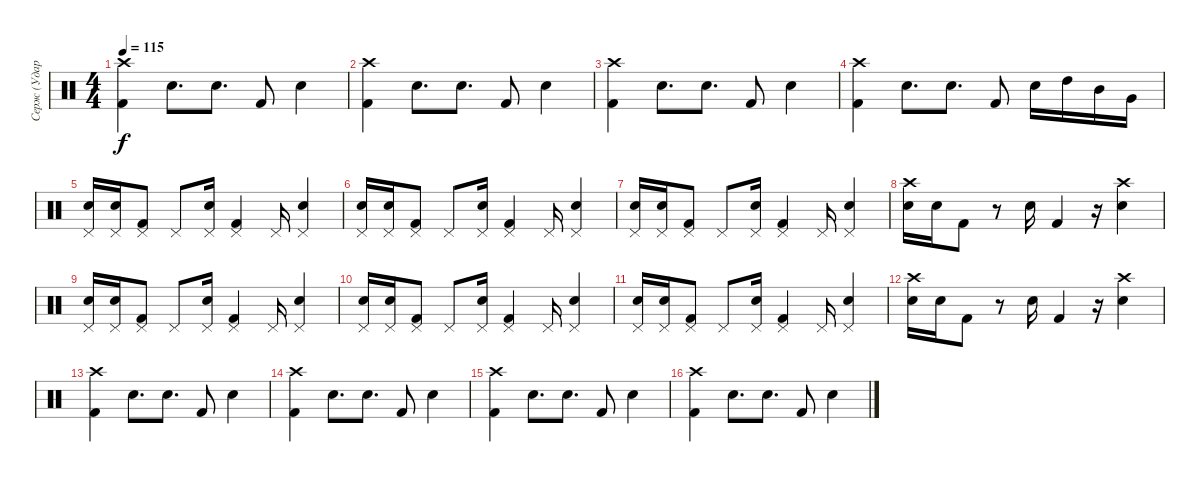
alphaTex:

\track ("Серж (Ударные)" "Серж (Удар") {instrument percussion}
\staff {score}
\articulation defaults
\ts (4 4)
\tempo 115
\clef neutral
\ks c
("Kick (hit) 2" "Crash high (hit)").4{dy f} "Snare (hit) 2".8{d} "Snare (hit) 2".8{d} "Kick (hit) 2".8 "Snare (hit) 2".4 |
("Kick (hit) 2" "Crash high (hit)").4 "Snare (hit) 2".8{d} "Snare (hit) 2".8{d} "Kick (hit) 2".8 "Snare (hit) 2".4 |
("Kick (hit) 2" "Crash high (hit)").4 "Snare (hit) 2".8{d} "Snare (hit) 2".8{d} "Kick (hit) 2".8 "Snare (hit) 2".4 |
("Kick (hit) 2" "Crash high (hit)").4 "Snare (hit) 2".8{d} "Snare (hit) 2".8{d} "Kick (hit) 2".8 "Snare (hit) 2".16 "High Tom (hit)".16 "Mid Tom (hit)".16 "Very Low Tom (hit)".16 |
("Snare (hit) 2" "Pedal Hi-Hat (hit)").16 ("Snare (hit) 2" "Pedal Hi-Hat (hit)").16 ("Kick (hit) 2" "Pedal Hi-Hat (hit)").8 "Pedal Hi-Hat (hit)".8 ("Snare (hit) 2" "Pedal Hi-Hat (hit)").16 ("Kick (hit) 2" "Pedal Hi-Hat (hit)").4 "Pedal Hi-Hat (hit)".16 ("Snare (hit) 2" "Pedal Hi-Hat (hit)").4 |
("Snare (hit) 2" "Pedal Hi-Hat (hit)").16 ("Snare (hit) 2" "Pedal Hi-Hat (hit)").16 ("Kick (hit) 2" "Pedal Hi-Hat (hit)").8 "Pedal Hi-Hat (hit)".8 ("Snare (hit) 2" "Pedal Hi-Hat (hit)").16 ("Kick (hit) 2" "Pedal Hi-Hat (hit)").4 "Pedal Hi-Hat (hit)".16 ("Snare (hit) 2" "Pedal Hi-Hat (hit)").4 |
("Snare (hit) 2" "Pedal Hi-Hat (hit)").16 ("Snare (hit) 2" "Pedal Hi-Hat (hit)").16 ("Kick (hit) 2" "Pedal Hi-Hat (hit)").8 "Pedal Hi-Hat (hit)".8 ("Snare (hit) 2" "Pedal Hi-Hat (hit)").16 ("Kick (hit) 2" "Pedal Hi-Hat (hit)").4 "Pedal Hi-Hat (hit)".16 ("Snare (hit) 2" "Pedal Hi-Hat (hit)").4 |
("Snare (hit) 2" "Crash high (hit)").16 "Snare (hit) 2".16 "Kick (hit) 2".8 r.8 "Snare (hit) 2".16 "Kick (hit) 2".4 r.16 ("Snare (hit) 2" "Crash high (hit)").4 |
("Snare (hit) 2" "Pedal Hi-Hat (hit)").16 ("Snare (hit) 2" "Pedal Hi-Hat (hit)").16 ("Kick (hit) 2" "Pedal Hi-Hat (hit)").8 "Pedal Hi-Hat (hit)".8 ("Snare (hit) 2" "Pedal Hi-Hat (hit)").16 ("Kick (hit) 2" "Pedal Hi-Hat (hit)").4 "Pedal Hi-Hat (hit)".16 ("Snare (hit) 2" "Pedal Hi-Hat (hit)").4 |
("Snare (hit) 2" "Pedal Hi-Hat (hit)").16 ("Snare (hit) 2" "Pedal Hi-Hat (hit)").16 ("Kick (hit) 2" "Pedal Hi-Hat (hit)").8 "Pedal Hi-Hat (hit)".8 ("Snare (hit) 2" "Pedal Hi-Hat (hit)").16 ("Kick (hit) 2" "Pedal Hi-Hat (hit)").4 "Pedal Hi-Hat (hit)".16 ("Snare (hit) 2" "Pedal Hi-Hat (hit)").4 |
("Snare (hit) 2" "Pedal Hi-Hat (hit)").16 ("Snare (hit) 2" "Pedal Hi-Hat (hit)").16 ("Kick (hit) 2" "Pedal Hi-Hat (hit)").8 "Pedal Hi-Hat (hit)".8 ("Snare (hit) 2" "Pedal Hi-Hat (hit)").16 ("Kick (hit) 2" "Pedal Hi-Hat (hit)").4 "Pedal Hi-Hat (hit)".16 ("Snare (hit) 2" "Pedal Hi-Hat (hit)").4 |
("Snare (hit) 2" "Crash high (hit)").16 "Snare (hit) 2".16 "Kick (hit) 2".8 r.8 "Snare (hit) 2".16 "Kick (hit) 2".4 r.16 ("Snare (hit) 2" "Crash high (hit)").4 |
("Kick (hit) 2" "Crash high (hit)").4 "Snare (hit) 2".8{d} "Snare (hit) 2".8{d} "Kick (hit) 2".8 "Snare (hit) 2".4 |
("Kick (hit) 2" "Crash high (hit)").4 "Snare (hit) 2".8{d} "Snare (hit) 2".8{d} "Kick (hit) 2".8 "Snare (hit) 2".4 |
("Kick (hit) 2" "Crash high (hit)").4 "Snare (hit) 2".8{d} "Snare (hit) 2".8{d} "Kick (hit) 2".8 "Snare (hit) 2".4 |
("Kick (hit) 2" "Crash high (hit)").4 "Snare (hit) 2".8{d} "Snare (hit) 2".8{d} "Kick (hit) 2".8 "Snare (hit) 2".4
